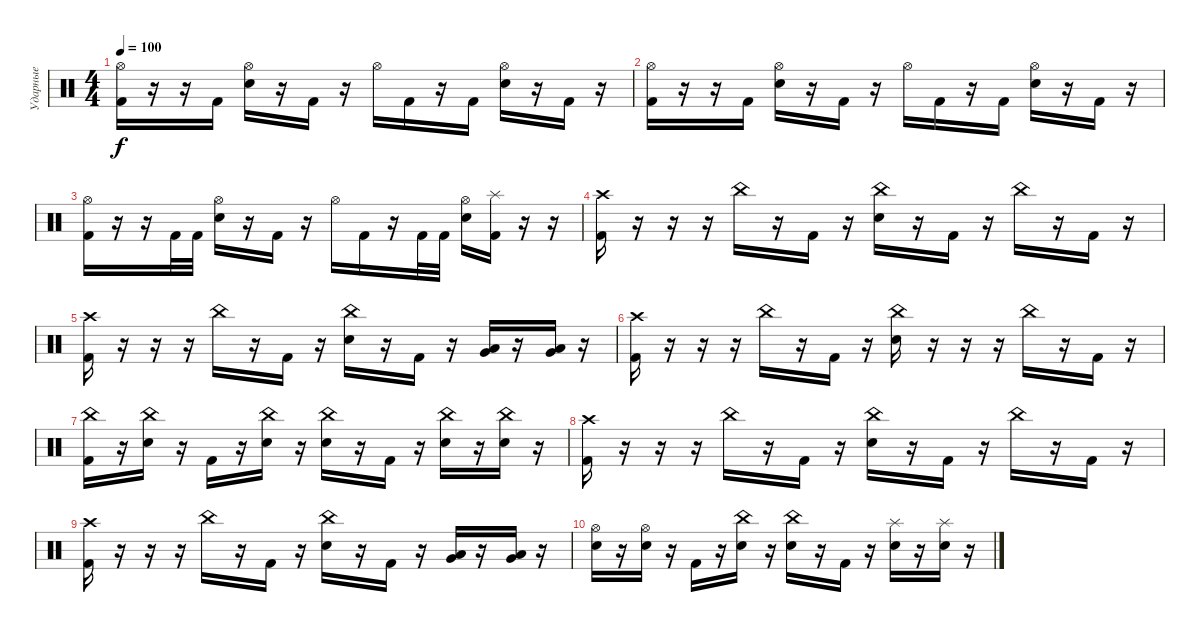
\track ("Ударные" "Ударные") {instrument percussion}
\staff {score}
\articulation defaults
\ts (4 4)
\tempo 100
\clef neutral
\ks c
("Hi-Hat (open)" "Kick (hit) 2").16{dy f} r.16 r.16 "Kick (hit) 2".16 ("Hi-Hat (open)" "Electric Snare (hit)").16 r.16 "Kick (hit) 2".16 r.16 "Hi-Hat (open)".16 "Kick (hit) 2".16 r.16 "Kick (hit) 2".16 ("Hi-Hat (open)" "Electric Snare (hit)").16 r.16 "Kick (hit) 2".16 r.16 |
("Hi-Hat (open)" "Kick (hit) 2").16 r.16 r.16 "Kick (hit) 2".16 ("Hi-Hat (open)" "Electric Snare (hit)").16 r.16 "Kick (hit) 2".16 r.16 "Hi-Hat (open)".16 "Kick (hit) 2".16 r.16 "Kick (hit) 2".16 ("Hi-Hat (open)" "Electric Snare (hit)").16 r.16 "Kick (hit) 2".16 r.16 |
("Hi-Hat (open)" "Kick (hit) 2").16 r.16 r.16 "Kick (hit) 2".32 "Kick (hit) 2".32 ("Hi-Hat (open)" "Electric Snare (hit)").16 r.16 "Kick (hit) 2".16 r.16 "Hi-Hat (open)".16 "Kick (hit) 2".16 r.16 "Kick (hit) 2".32 "Kick (hit) 2".32 ("Hi-Hat (open)" "Electric Snare (hit)").16 ("Splash (hit)" "Kick (hit) 2").16 r.16 r.16 |
("Crash high (hit)" "Kick (hit) 2").16 r.16 r.16 r.16 "China (hit)".16 r.16 "Kick (hit) 2".16 r.16 ("China (hit)" "Electric Snare (hit)").16 r.16 "Kick (hit) 2".16 r.16 "China (hit)".16 r.16 "Kick (hit) 2".16 r.16 |
("Crash high (hit)" "Kick (hit) 2").16 r.16 r.16 r.16 "China (hit)".16 r.16 "Kick (hit) 2".16 r.16 ("China (hit)" "Electric Snare (hit)").16 r.16 "Kick (hit) 2".16 r.16 ("Very Low Tom (hit)" "Low Tom (hit)").16 r.16 ("Very Low Tom (hit)" "Low Tom (hit)").16 r.16 |
("Crash high (hit)" "Kick (hit) 2").16 r.16 r.16 r.16 "China (hit)".16 r.16 "Kick (hit) 2".16 r.16 ("China (hit)" "Electric Snare (hit)").16 r.16 r.16 r.16 "China (hit)".16 r.16 "Kick (hit) 2".16 r.16 |
("China (hit)" "Kick (hit) 2").16 r.16 ("China (hit)" "Electric Snare (hit)").16 r.16 "Kick (hit) 2".16 r.16 ("China (hit)" "Electric Snare (hit)").16 r.16 ("China (hit)" "Electric Snare (hit)").16 r.16 "Kick (hit) 2".16 r.16 ("China (hit)" "Electric Snare (hit)").16 r.16 ("China (hit)" "Electric Snare (hit)").16 r.16 |
("Crash high (hit)" "Kick (hit) 2").16 r.16 r.16 r.16 "China (hit)".16 r.16 "Kick (hit) 2".16 r.16 ("China (hit)" "Electric Snare (hit)").16 r.16 "Kick (hit) 2".16 r.16 "China (hit)".16 r.16 "Kick (hit) 2".16 r.16 |
("Crash high (hit)" "Kick (hit) 2").16 r.16 r.16 r.16 "China (hit)".16 r.16 "Kick (hit) 2".16 r.16 ("China (hit)" "Electric Snare (hit)").16 r.16 "Kick (hit) 2".16 r.16 ("Very Low Tom (hit)" "Low Tom (hit)").16 r.16 ("Very Low Tom (hit)" "Low Tom (hit)").16 r.16 |
("Hi-Hat (open)" "Electric Snare (hit)").16 r.16 ("Hi-Hat (open)" "Electric Snare (hit)").16 r.16 "Kick (hit) 2".16 r.16 ("China (hit)" "Electric Snare (hit)").16 r.16 ("China (hit)" "Electric Snare (hit)").16 r.16 "Kick (hit) 2".16 r.16 ("Splash (hit)" "Electric Snare (hit)").16 r.16 ("Splash (hit)" "Electric Snare (hit)").16 r.16
